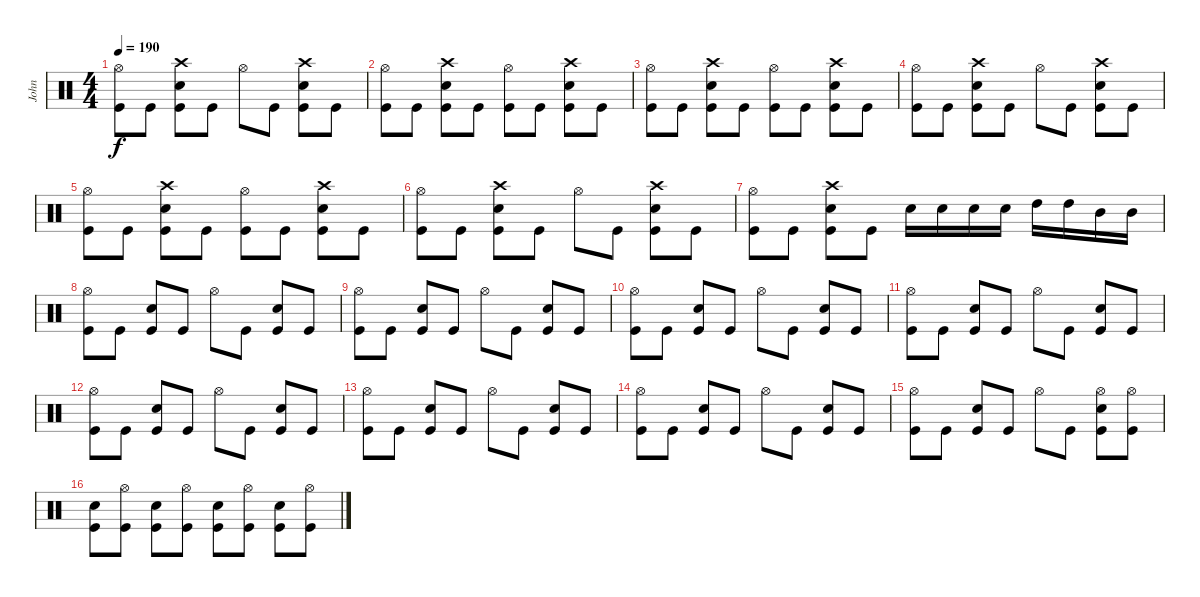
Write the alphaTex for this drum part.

\track ("John" "John") {instrument percussion}
\staff {score}
\articulation defaults
\ts (4 4)
\tempo 190
\clef neutral
\ks c
("Kick (hit)" "Hi-Hat (open)").8{dy f} "Kick (hit)".8 ("Kick (hit)" "Snare (hit) 2" "Crash high (hit)").8 "Kick (hit)".8 "Hi-Hat (open)".8 "Kick (hit)".8 ("Kick (hit)" "Snare (hit) 2" "Crash high (hit)").8 "Kick (hit)".8 |
("Kick (hit)" "Hi-Hat (open)").8 "Kick (hit)".8 ("Kick (hit)" "Snare (hit) 2" "Crash high (hit)").8 "Kick (hit)".8 ("Kick (hit)" "Hi-Hat (open)").8 "Kick (hit)".8 ("Kick (hit)" "Snare (hit) 2" "Crash high (hit)").8 "Kick (hit)".8 |
("Kick (hit)" "Hi-Hat (open)").8 "Kick (hit)".8 ("Kick (hit)" "Snare (hit) 2" "Crash high (hit)").8 "Kick (hit)".8 ("Kick (hit)" "Hi-Hat (open)").8 "Kick (hit)".8 ("Kick (hit)" "Snare (hit) 2" "Crash high (hit)").8 "Kick (hit)".8 |
("Kick (hit)" "Hi-Hat (open)").8 "Kick (hit)".8 ("Kick (hit)" "Snare (hit) 2" "Crash high (hit)").8 "Kick (hit)".8 "Hi-Hat (open)".8 "Kick (hit)".8 ("Kick (hit)" "Snare (hit) 2" "Crash high (hit)").8 "Kick (hit)".8 |
("Kick (hit)" "Hi-Hat (open)").8 "Kick (hit)".8 ("Kick (hit)" "Snare (hit) 2" "Crash high (hit)").8 "Kick (hit)".8 ("Kick (hit)" "Hi-Hat (open)").8 "Kick (hit)".8 ("Kick (hit)" "Snare (hit) 2" "Crash high (hit)").8 "Kick (hit)".8 |
("Kick (hit)" "Hi-Hat (open)").8 "Kick (hit)".8 ("Kick (hit)" "Snare (hit) 2" "Crash high (hit)").8 "Kick (hit)".8 "Hi-Hat (open)".8 "Kick (hit)".8 ("Kick (hit)" "Snare (hit) 2" "Crash high (hit)").8 "Kick (hit)".8 |
("Kick (hit)" "Hi-Hat (open)").8 "Kick (hit)".8 ("Kick (hit)" "Snare (hit) 2" "Crash high (hit)").8 "Kick (hit)".8 "Snare (hit) 2".16 "Snare (hit) 2".16 "Snare (hit) 2".16 "Snare (hit) 2".16 "High Tom (hit)".16 "High Tom (hit)".16 "Mid Tom (hit)".16 "Mid Tom (hit)".16 |
("Kick (hit)" "Hi-Hat (open)").8 "Kick (hit)".8 ("Kick (hit)" "Snare (hit) 2").8 "Kick (hit)".8 "Hi-Hat (open)".8 "Kick (hit)".8 ("Kick (hit)" "Snare (hit) 2").8 "Kick (hit)".8 |
("Kick (hit)" "Hi-Hat (open)").8 "Kick (hit)".8 ("Kick (hit)" "Snare (hit) 2").8 "Kick (hit)".8 "Hi-Hat (open)".8 "Kick (hit)".8 ("Kick (hit)" "Snare (hit) 2").8 "Kick (hit)".8 |
("Kick (hit)" "Hi-Hat (open)").8 "Kick (hit)".8 ("Kick (hit)" "Snare (hit) 2").8 "Kick (hit)".8 "Hi-Hat (open)".8 "Kick (hit)".8 ("Kick (hit)" "Snare (hit) 2").8 "Kick (hit)".8 |
("Kick (hit)" "Hi-Hat (open)").8 "Kick (hit)".8 ("Kick (hit)" "Snare (hit) 2").8 "Kick (hit)".8 "Hi-Hat (open)".8 "Kick (hit)".8 ("Kick (hit)" "Snare (hit) 2").8 "Kick (hit)".8 |
("Kick (hit)" "Hi-Hat (open)").8 "Kick (hit)".8 ("Kick (hit)" "Snare (hit) 2").8 "Kick (hit)".8 "Hi-Hat (open)".8 "Kick (hit)".8 ("Kick (hit)" "Snare (hit) 2").8 "Kick (hit)".8 |
("Kick (hit)" "Hi-Hat (open)").8 "Kick (hit)".8 ("Kick (hit)" "Snare (hit) 2").8 "Kick (hit)".8 "Hi-Hat (open)".8 "Kick (hit)".8 ("Kick (hit)" "Snare (hit) 2").8 "Kick (hit)".8 |
("Kick (hit)" "Hi-Hat (open)").8 "Kick (hit)".8 ("Kick (hit)" "Snare (hit) 2").8 "Kick (hit)".8 "Hi-Hat (open)".8 "Kick (hit)".8 ("Kick (hit)" "Snare (hit) 2").8 "Kick (hit)".8 |
("Kick (hit)" "Hi-Hat (open)").8 "Kick (hit)".8 ("Kick (hit)" "Snare (hit) 2").8 "Kick (hit)".8 "Hi-Hat (open)".8 "Kick (hit)".8 ("Kick (hit)" "Snare (hit) 2" "Hi-Hat (open)").8 ("Kick (hit)" "Hi-Hat (open)").8 |
("Kick (hit)" "Snare (hit) 2").8 ("Kick (hit)" "Hi-Hat (open)").8 ("Kick (hit)" "Snare (hit) 2").8 ("Kick (hit)" "Hi-Hat (open)").8 ("Kick (hit)" "Snare (hit) 2").8 ("Kick (hit)" "Hi-Hat (open)").8 ("Kick (hit)" "Snare (hit) 2").8 ("Kick (hit)" "Hi-Hat (open)").8
